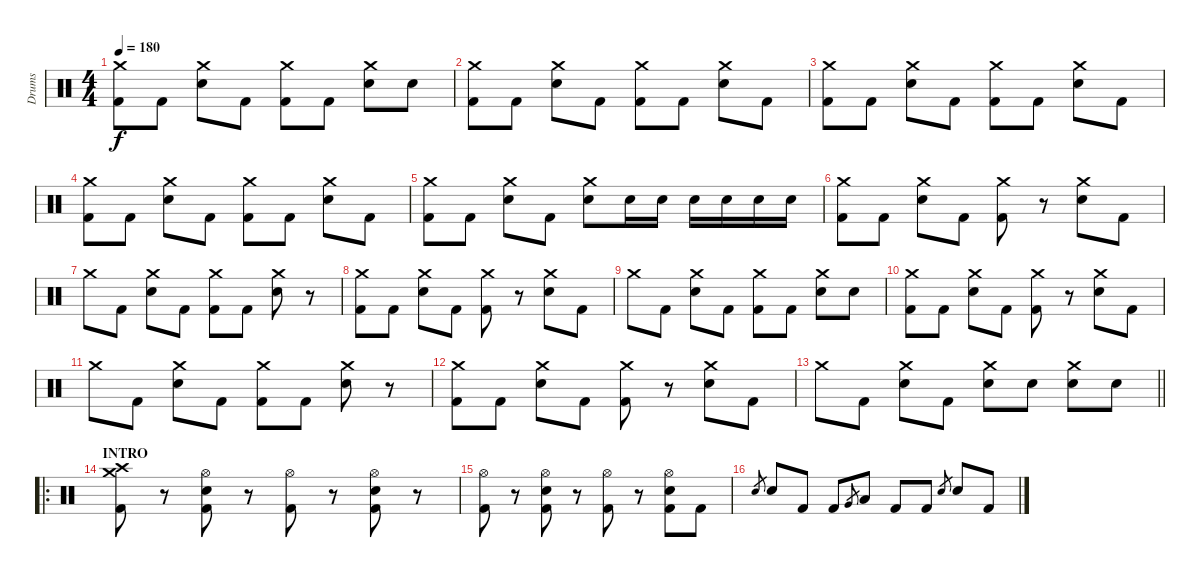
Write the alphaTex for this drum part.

\track ("Drums" "Drums") {instrument percussion}
\staff {score}
\articulation defaults
\ts (4 4)
\tempo 180
\clef neutral
\ks c
("Crash medium (hit)" "Kick (hit) 2").8{dy f} "Kick (hit) 2".8 ("Crash medium (hit)" "Electric Snare (hit)").8 "Kick (hit) 2".8 ("Crash medium (hit)" "Kick (hit) 2").8 "Kick (hit) 2".8 ("Crash medium (hit)" "Electric Snare (hit)").8 "Electric Snare (hit)".8 |
("Crash medium (hit)" "Kick (hit) 2").8 "Kick (hit) 2".8 ("Crash medium (hit)" "Electric Snare (hit)").8 "Kick (hit) 2".8 ("Crash medium (hit)" "Kick (hit) 2").8 "Kick (hit) 2".8 ("Crash medium (hit)" "Electric Snare (hit)").8 "Kick (hit) 2".8 |
("Crash medium (hit)" "Kick (hit) 2").8 "Kick (hit) 2".8 ("Crash medium (hit)" "Electric Snare (hit)").8 "Kick (hit) 2".8 ("Crash medium (hit)" "Kick (hit) 2").8 "Kick (hit) 2".8 ("Crash medium (hit)" "Electric Snare (hit)").8 "Kick (hit) 2".8 |
("Crash medium (hit)" "Kick (hit) 2").8 "Kick (hit) 2".8 ("Crash medium (hit)" "Electric Snare (hit)").8 "Kick (hit) 2".8 ("Crash medium (hit)" "Kick (hit) 2").8 "Kick (hit) 2".8 ("Crash medium (hit)" "Electric Snare (hit)").8 "Kick (hit) 2".8 |
("Crash medium (hit)" "Kick (hit) 2").8 "Kick (hit) 2".8 ("Crash medium (hit)" "Electric Snare (hit)").8 "Kick (hit) 2".8 ("Crash medium (hit)" "Electric Snare (hit)").8 "Electric Snare (hit)".16 "Electric Snare (hit)".16 "Electric Snare (hit)".16 "Electric Snare (hit)".16 "Electric Snare (hit)".16 "Electric Snare (hit)".16 |
("Crash medium (hit)" "Kick (hit) 2").8 "Kick (hit) 2".8 ("Crash medium (hit)" "Electric Snare (hit)").8 "Kick (hit) 2".8 ("Crash medium (hit)" "Kick (hit) 2").8 r.8 ("Crash medium (hit)" "Electric Snare (hit)").8 "Kick (hit) 2".8 |
"Crash medium (hit)".8 "Kick (hit) 2".8 ("Crash medium (hit)" "Electric Snare (hit)").8 "Kick (hit) 2".8 ("Crash medium (hit)" "Kick (hit) 2").8 "Kick (hit) 2".8 ("Crash medium (hit)" "Electric Snare (hit)").8 r.8 |
("Crash medium (hit)" "Kick (hit) 2").8 "Kick (hit) 2".8 ("Crash medium (hit)" "Electric Snare (hit)").8 "Kick (hit) 2".8 ("Crash medium (hit)" "Kick (hit) 2").8 r.8 ("Crash medium (hit)" "Electric Snare (hit)").8 "Kick (hit) 2".8 |
"Crash medium (hit)".8 "Kick (hit) 2".8 ("Crash medium (hit)" "Electric Snare (hit)").8 "Kick (hit) 2".8 ("Crash medium (hit)" "Kick (hit) 2").8 "Kick (hit) 2".8 ("Crash medium (hit)" "Electric Snare (hit)").8 "Electric Snare (hit)".8 |
("Crash medium (hit)" "Kick (hit) 2").8 "Kick (hit) 2".8 ("Crash medium (hit)" "Electric Snare (hit)").8 "Kick (hit) 2".8 ("Crash medium (hit)" "Kick (hit) 2").8 r.8 ("Crash medium (hit)" "Electric Snare (hit)").8 "Kick (hit) 2".8 |
"Crash medium (hit)".8 "Kick (hit) 2".8 ("Crash medium (hit)" "Electric Snare (hit)").8 "Kick (hit) 2".8 ("Crash medium (hit)" "Kick (hit) 2").8 "Kick (hit) 2".8 ("Crash medium (hit)" "Electric Snare (hit)").8 r.8 |
("Crash medium (hit)" "Kick (hit) 2").8 "Kick (hit) 2".8 ("Crash medium (hit)" "Electric Snare (hit)").8 "Kick (hit) 2".8 ("Crash medium (hit)" "Kick (hit) 2").8 r.8 ("Crash medium (hit)" "Electric Snare (hit)").8 "Kick (hit) 2".8 |
\barLineRight lightlight "Crash medium (hit)".8 "Kick (hit) 2".8
("Crash medium (hit)" "Electric Snare (hit)").8 "Kick (hit) 2".8 ("Crash medium (hit)" "Electric Snare (hit)").8 "Electric Snare (hit)".8 ("Crash medium (hit)" "Electric Snare (hit)").8 "Electric Snare (hit)".8 |
\ro
\section ("" "INTRO")
("Crash medium (hit)" "Crash high (hit)" "Kick (hit) 2").8 r.8 ("Hi-Hat (open)" "Electric Snare (hit)" "Kick (hit) 2").8 r.8 ("Hi-Hat (open)" "Kick (hit) 2").8 r.8 ("Hi-Hat (open)" "Electric Snare (hit)" "Kick (hit) 2").8 r.8 |
("Hi-Hat (open)" "Kick (hit) 2").8 r.8 ("Hi-Hat (open)" "Electric Snare (hit)" "Kick (hit) 2").8 r.8 ("Hi-Hat (open)" "Kick (hit) 2").8 r.8 ("Hi-Hat (open)" "Electric Snare (hit)" "Kick (hit) 2").8 "Kick (hit) 2".8 |
"Electric Snare (hit)".8{gr} "Electric Snare (hit)".8 "Kick (hit) 2".8 "Kick (hit) 2".8 "Very Low Tom (hit)".8{gr} "Low Tom (hit)".8 "Kick (hit) 2".8 "Kick (hit) 2".8 "Electric Snare (hit)".8{gr} "Electric Snare (hit)".8 "Kick (hit) 2".8
